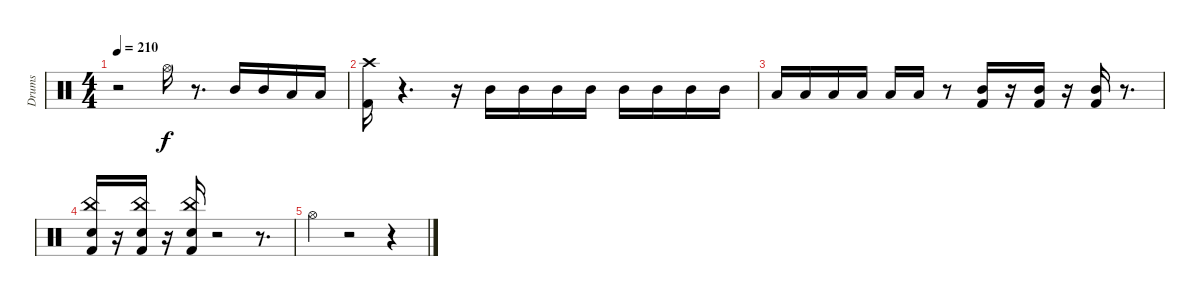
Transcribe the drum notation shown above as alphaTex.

\track ("Drums" "Drums") {instrument percussion}
\staff {score}
\articulation defaults
\ts (4 4)
\tempo 210
\clef neutral
\ks c
r.2{dy f} "Hi-Hat (open)".16 r.8{d} "Mid Tom (hit)".16 "Mid Tom (hit)".16 "Low Tom (hit)".16 "Low Tom (hit)".16 |
("Kick (hit) 2" "Crash high (hit)").16 r.4{d} r.16 "Mid Tom (hit)".16 "Mid Tom (hit)".16 "Mid Tom (hit)".16 "Mid Tom (hit)".16 "Mid Tom (hit)".16 "Mid Tom (hit)".16 "Mid Tom (hit)".16 "Mid Tom (hit)".16 |
"Low Tom (hit)".16 "Low Tom (hit)".16 "Low Tom (hit)".16 "Low Tom (hit)".16 "Low Tom (hit)".16 "Low Tom (hit)".16 r.8 ("Kick (hit) 2" "Mid Tom (hit)").16 r.16 ("Mid Tom (hit)" "Kick (hit) 2").16 r.16 ("Mid Tom (hit)" "Kick (hit) 2").16 r.8{d} |
("China (hit)" "Kick (hit) 2" "Snare (hit) 2").16 r.16 ("Kick (hit) 2" "Snare (hit) 2" "China (hit)").16 r.16 ("Snare (hit) 2" "Kick (hit) 2" "China (hit)").16 r.2 r.8{d} |
"Hi-Hat (open)".4 r.2 r.4
